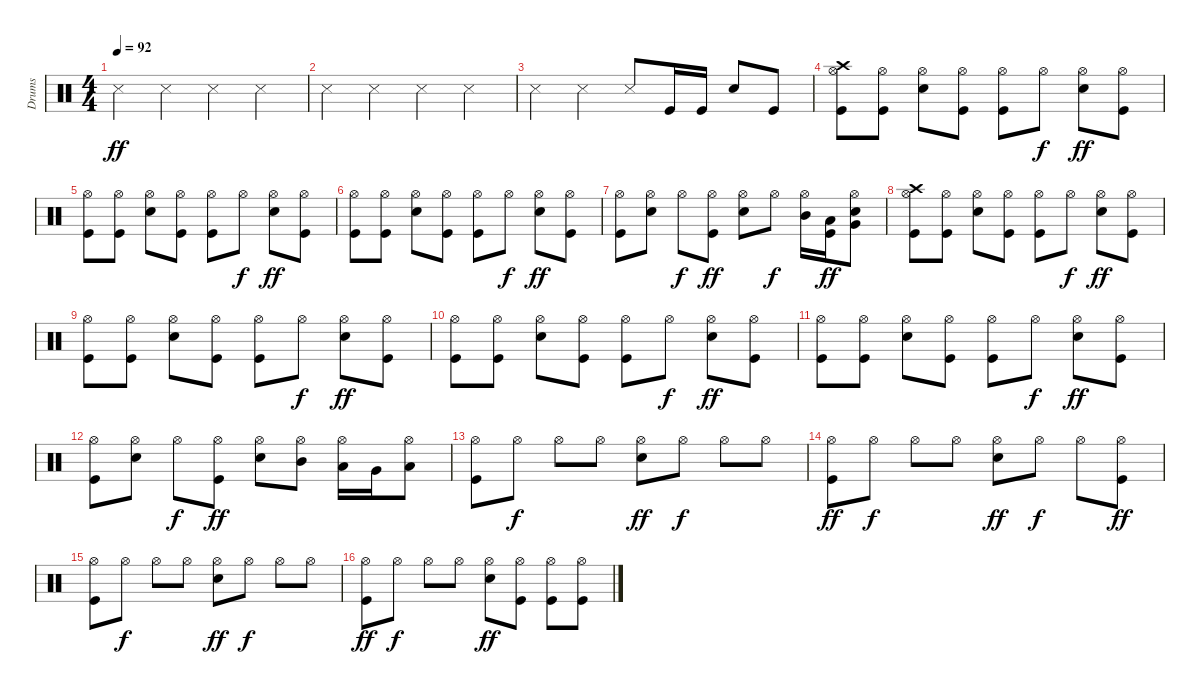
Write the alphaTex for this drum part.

\track ("Drums" "Drums") {instrument percussion}
\staff {score}
\articulation defaults
\ts (4 4)
\tempo 92
\clef neutral
\ks c "Snare (side stick) 3".4{dy ff} "Snare (side stick) 3".4 "Snare (side stick) 3".4 "Snare (side stick) 3".4
|
"Snare (side stick) 3".4 "Snare (side stick) 3".4 "Snare (side stick) 3".4 "Snare (side stick) 3".4 |
"Snare (side stick) 3".4 "Snare (side stick) 3".4 "Snare (side stick) 3".8 "Kick (hit)".16 "Kick (hit)".16 "Snare (hit) 2".8 "Kick (hit)".8 |
("Hi-Hat (open)" "Crash high (hit)" "Kick (hit)").8 ("Hi-Hat (open)" "Kick (hit)").8 ("Hi-Hat (open)" "Snare (hit) 2").8 ("Hi-Hat (open)" "Kick (hit)").8 ("Hi-Hat (open)" "Kick (hit)").8 "Hi-Hat (open)".8{dy f} ("Hi-Hat (open)" "Snare (hit) 2").8{dy ff} ("Hi-Hat (open)" "Kick (hit)").8 |
("Hi-Hat (open)" "Kick (hit)").8 ("Hi-Hat (open)" "Kick (hit)").8 ("Hi-Hat (open)" "Snare (hit) 2").8 ("Hi-Hat (open)" "Kick (hit)").8 ("Hi-Hat (open)" "Kick (hit)").8 "Hi-Hat (open)".8{dy f} ("Hi-Hat (open)" "Snare (hit) 2").8{dy ff} ("Hi-Hat (open)" "Kick (hit)").8 |
("Hi-Hat (open)" "Kick (hit)").8 ("Hi-Hat (open)" "Kick (hit)").8 ("Hi-Hat (open)" "Snare (hit) 2").8 ("Hi-Hat (open)" "Kick (hit)").8 ("Hi-Hat (open)" "Kick (hit)").8 "Hi-Hat (open)".8{dy f} ("Hi-Hat (open)" "Snare (hit) 2").8{dy ff} ("Hi-Hat (open)" "Kick (hit)").8 |
("Hi-Hat (open)" "Kick (hit)").8 ("Hi-Hat (open)" "Snare (hit) 2").8 "Hi-Hat (open)".8{dy f} ("Hi-Hat (open)" "Kick (hit)").8{dy ff} ("Hi-Hat (open)" "Snare (hit) 2").8 "Hi-Hat (open)".8{dy f} ("Hi-Hat (open)" "Mid Tom (hit)").16 ("Low Tom (hit)" "Kick (hit)").16{dy ff} ("Hi-Hat (open)" "Very Low Tom (hit)" "Snare (hit) 2").8 |
("Hi-Hat (open)" "Crash high (hit)" "Kick (hit)").8 ("Hi-Hat (open)" "Kick (hit)").8 ("Hi-Hat (open)" "Snare (hit) 2").8 ("Hi-Hat (open)" "Kick (hit)").8 ("Hi-Hat (open)" "Kick (hit)").8 "Hi-Hat (open)".8{dy f} ("Hi-Hat (open)" "Snare (hit) 2").8{dy ff} ("Hi-Hat (open)" "Kick (hit)").8 |
("Hi-Hat (open)" "Kick (hit)").8 ("Hi-Hat (open)" "Kick (hit)").8 ("Hi-Hat (open)" "Snare (hit) 2").8 ("Hi-Hat (open)" "Kick (hit)").8 ("Hi-Hat (open)" "Kick (hit)").8 "Hi-Hat (open)".8{dy f} ("Hi-Hat (open)" "Snare (hit) 2").8{dy ff} ("Hi-Hat (open)" "Kick (hit)").8 |
("Hi-Hat (open)" "Kick (hit)").8 ("Hi-Hat (open)" "Kick (hit)").8 ("Hi-Hat (open)" "Snare (hit) 2").8 ("Hi-Hat (open)" "Kick (hit)").8 ("Hi-Hat (open)" "Kick (hit)").8 "Hi-Hat (open)".8{dy f} ("Hi-Hat (open)" "Snare (hit) 2").8{dy ff} ("Hi-Hat (open)" "Kick (hit)").8 |
("Hi-Hat (open)" "Kick (hit)").8 ("Hi-Hat (open)" "Kick (hit)").8 ("Hi-Hat (open)" "Snare (hit) 2").8 ("Hi-Hat (open)" "Kick (hit)").8 ("Hi-Hat (open)" "Kick (hit)").8 "Hi-Hat (open)".8{dy f} ("Hi-Hat (open)" "Snare (hit) 2").8{dy ff} ("Hi-Hat (open)" "Kick (hit)").8 |
("Hi-Hat (open)" "Kick (hit)").8 ("Hi-Hat (open)" "Snare (hit) 2").8 "Hi-Hat (open)".8{dy f} ("Hi-Hat (open)" "Kick (hit)").8{dy ff} ("Hi-Hat (open)" "Snare (hit) 2").8 ("Hi-Hat (open)" "Mid Tom (hit)").8 ("Hi-Hat (open)" "Low Tom (hit)").16 "Very Low Tom (hit)".16 ("Hi-Hat (open)" "Low Floor Tom (hit)").8 |
("Hi-Hat (open)" "Kick (hit)").8 "Hi-Hat (open)".8{dy f} "Hi-Hat (open)".8 "Hi-Hat (open)".8 ("Hi-Hat (open)" "Snare (hit) 2").8{dy ff} "Hi-Hat (open)".8{dy f} "Hi-Hat (open)".8 "Hi-Hat (open)".8 |
("Hi-Hat (open)" "Kick (hit)").8{dy ff} "Hi-Hat (open)".8{dy f} "Hi-Hat (open)".8 "Hi-Hat (open)".8 ("Hi-Hat (open)" "Snare (hit) 2").8{dy ff} "Hi-Hat (open)".8{dy f} "Hi-Hat (open)".8 ("Hi-Hat (open)" "Kick (hit)").8{dy ff} |
("Hi-Hat (open)" "Kick (hit)").8 "Hi-Hat (open)".8{dy f} "Hi-Hat (open)".8 "Hi-Hat (open)".8 ("Hi-Hat (open)" "Snare (hit) 2").8{dy ff} "Hi-Hat (open)".8{dy f} "Hi-Hat (open)".8 "Hi-Hat (open)".8 |
("Hi-Hat (open)" "Kick (hit)").8{dy ff} "Hi-Hat (open)".8{dy f} "Hi-Hat (open)".8 "Hi-Hat (open)".8 ("Hi-Hat (open)" "Snare (hit) 2").8{dy ff} ("Hi-Hat (open)" "Kick (hit)").8 ("Hi-Hat (open)" "Kick (hit)").8 ("Hi-Hat (open)" "Kick (hit)").8
